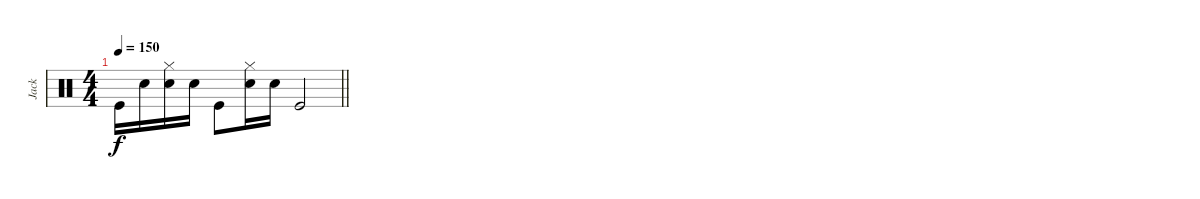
\track ("Jack" "Jack") {instrument percussion}
\staff {score}
\articulation defaults
\ts (4 4)
\tempo 150
\clef neutral
\barLineRight lightlight
\ks c "Kick (hit)".16{dy f} "Electric Snare (hit)".16
("Hi-Hat (closed)" "Electric Snare (hit)").16 "Electric Snare (hit)".16 "Kick (hit)".8 ("Hi-Hat (closed)" "Electric Snare (hit)").16 "Electric Snare (hit)".16 "Kick (hit)".2
